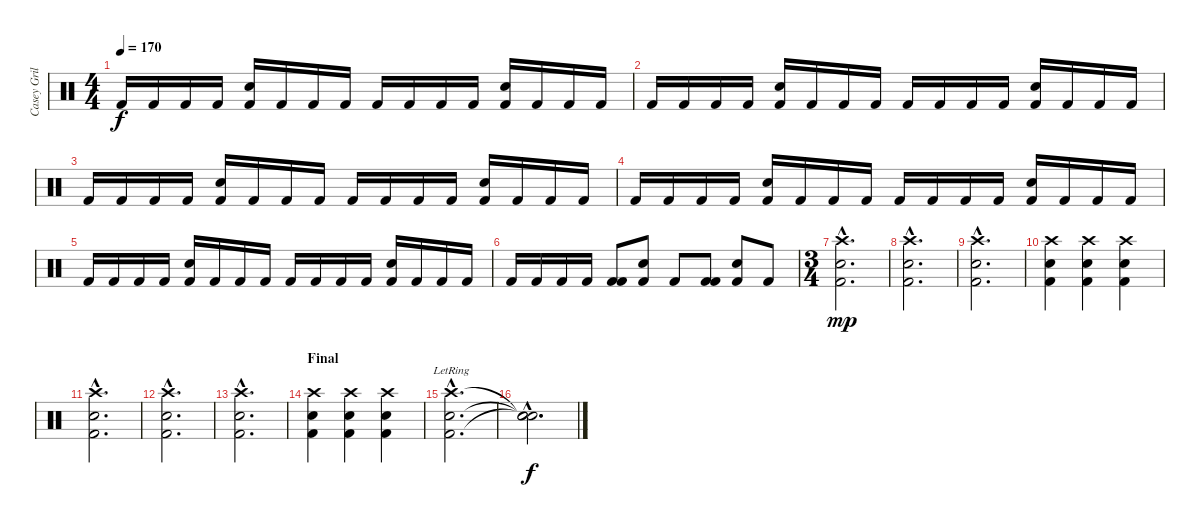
\track ("Casey Grillo" "Casey Gril") {instrument percussion}
\staff {score}
\articulation defaults
\ts (4 4)
\tempo 170
\clef neutral
\ks c "Kick (hit) 2".16{dy f} "Kick (hit) 2".16 "Kick (hit) 2".16 "Kick (hit) 2".16
("Snare (hit) 2" "Kick (hit) 2").16 "Kick (hit) 2".16 "Kick (hit) 2".16 "Kick (hit) 2".16 "Kick (hit) 2".16 "Kick (hit) 2".16 "Kick (hit) 2".16 "Kick (hit) 2".16 ("Snare (hit) 2" "Kick (hit) 2").16 "Kick (hit) 2".16 "Kick (hit) 2".16 "Kick (hit) 2".16 |
"Kick (hit) 2".16 "Kick (hit) 2".16 "Kick (hit) 2".16 "Kick (hit) 2".16 ("Snare (hit) 2" "Kick (hit) 2").16 "Kick (hit) 2".16 "Kick (hit) 2".16 "Kick (hit) 2".16 "Kick (hit) 2".16 "Kick (hit) 2".16 "Kick (hit) 2".16 "Kick (hit) 2".16 ("Snare (hit) 2" "Kick (hit) 2").16 "Kick (hit) 2".16 "Kick (hit) 2".16 "Kick (hit) 2".16 |
"Kick (hit) 2".16 "Kick (hit) 2".16 "Kick (hit) 2".16 "Kick (hit) 2".16 ("Snare (hit) 2" "Kick (hit) 2").16 "Kick (hit) 2".16 "Kick (hit) 2".16 "Kick (hit) 2".16 "Kick (hit) 2".16 "Kick (hit) 2".16 "Kick (hit) 2".16 "Kick (hit) 2".16 ("Snare (hit) 2" "Kick (hit) 2").16 "Kick (hit) 2".16 "Kick (hit) 2".16 "Kick (hit) 2".16 |
"Kick (hit) 2".16 "Kick (hit) 2".16 "Kick (hit) 2".16 "Kick (hit) 2".16 ("Snare (hit) 2" "Kick (hit) 2").16 "Kick (hit) 2".16 "Kick (hit) 2".16 "Kick (hit) 2".16 "Kick (hit) 2".16 "Kick (hit) 2".16 "Kick (hit) 2".16 "Kick (hit) 2".16 ("Snare (hit) 2" "Kick (hit) 2").16 "Kick (hit) 2".16 "Kick (hit) 2".16 "Kick (hit) 2".16 |
"Kick (hit) 2".16 "Kick (hit) 2".16 "Kick (hit) 2".16 "Kick (hit) 2".16 ("Snare (hit) 2" "Kick (hit) 2").16 "Kick (hit) 2".16 "Kick (hit) 2".16 "Kick (hit) 2".16 "Kick (hit) 2".16 "Kick (hit) 2".16 "Kick (hit) 2".16 "Kick (hit) 2".16 ("Snare (hit) 2" "Kick (hit) 2").16 "Kick (hit) 2".16 "Kick (hit) 2".16 "Kick (hit) 2".16 |
"Kick (hit) 2".16 "Kick (hit) 2".16 "Kick (hit) 2".16 "Kick (hit) 2".16 ("Kick (hit) 2" "Kick (hit) 2").8 ("Snare (hit) 2" "Kick (hit) 2").8 "Kick (hit) 2".8 ("Kick (hit) 2" "Kick (hit) 2").8 ("Snare (hit) 2" "Kick (hit) 2").8 "Kick (hit) 2".8 |
\ts (3 4)
("Snare (hit) 2"{hac} "Kick (hit) 2"{hac} "Crash high (hit)"{hac}).2{d dy mp} |
("Snare (hit) 2"{hac} "Kick (hit) 2"{hac} "Crash high (hit)"{hac}).2{d} |
("Snare (hit) 2"{hac} "Kick (hit) 2"{hac} "Crash high (hit)"{hac}).2{d} |
("Snare (hit) 2" "Kick (hit) 2" "Crash high (hit)").4 ("Snare (hit) 2" "Kick (hit) 2" "Crash high (hit)").4 ("Snare (hit) 2" "Kick (hit) 2" "Crash high (hit)").4 |
("Snare (hit) 2"{hac} "Kick (hit) 2"{hac} "Crash high (hit)"{hac}).2{d} |
("Snare (hit) 2"{hac} "Kick (hit) 2"{hac} "Crash high (hit)"{hac}).2{d} |
("Snare (hit) 2"{hac} "Kick (hit) 2"{hac} "Crash high (hit)"{hac}).2{d} |
\section ("" "Final")
("Snare (hit) 2" "Kick (hit) 2" "Crash high (hit)").4 ("Snare (hit) 2" "Kick (hit) 2" "Crash high (hit)").4 ("Snare (hit) 2" "Kick (hit) 2" "Crash high (hit)").4 |
("Snare (hit) 2"{hac lr} "Kick (hit) 2"{hac lr} "Crash high (hit)"{hac lr}).2{d} |
("Snare (hit)"{hac t} "Snare (hit)"{hac t} "Snare (hit)"{hac t}).2{d dy f}
